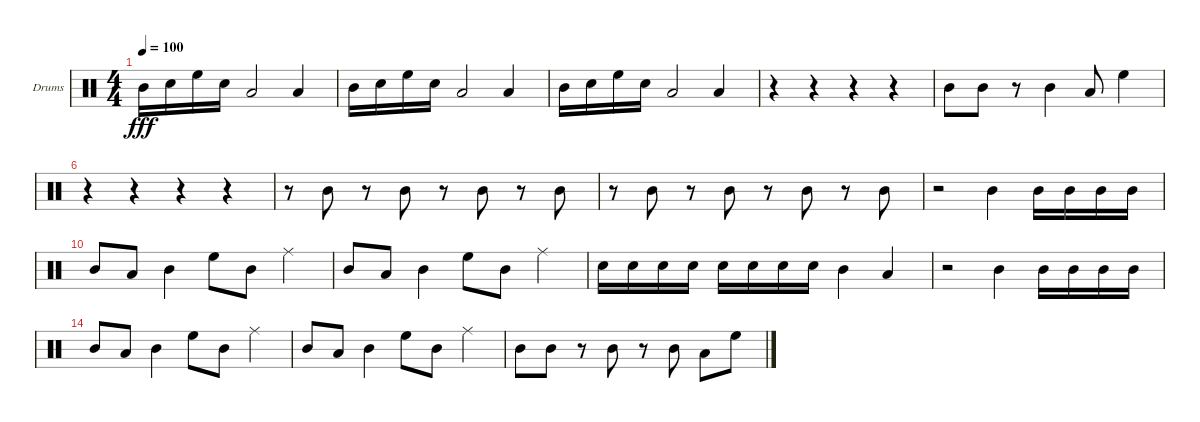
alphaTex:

\defaultSystemsLayout 4
\bracketExtendMode groupsimilarinstruments
\firstSystemTrackNameOrientation horizontal
\otherSystemsTrackNameOrientation horizontal
\defaultBarNumberDisplay FirstOfSystem
\track ("Drumkit" "Drums") {instrument percussion}
\staff {score}
\articulation defaults
\ts (4 4)
\tempo 100
\clef neutral
\ks c "Mid Tom (hit)".16{dy fff} "Snare (hit) 2".16 "High Floor Tom (hit)".16 "Snare (hit) 2".16 "Low Tom (hit)".2 "Low Tom (hit)".4
|
"Mid Tom (hit)".16 "Snare (hit) 2".16 "High Floor Tom (hit)".16 "Snare (hit) 2".16 "Low Tom (hit)".2 "Low Tom (hit)".4 |
"Mid Tom (hit)".16 "Snare (hit) 2".16 "High Floor Tom (hit)".16 "Snare (hit) 2".16 "Low Tom (hit)".2 "Low Tom (hit)".4 |
r.4 r.4 r.4 r.4 |
"Mid Tom (hit)".8 "Mid Tom (hit)".8 r.8 "Mid Tom (hit)".4 "Low Tom (hit)".8 "High Floor Tom (hit)".4 |
r.4 r.4 r.4 r.4 |
r.8 "Mid Tom (hit)".8 r.8 "Mid Tom (hit)".8 r.8 "Mid Tom (hit)".8 r.8 "Mid Tom (hit)".8 |
r.8 "Mid Tom (hit)".8 r.8 "Mid Tom (hit)".8 r.8 "Mid Tom (hit)".8 r.8 "Mid Tom (hit)".8 |
r.2 "Mid Tom (hit)".4 "Mid Tom (hit)".16 "Mid Tom (hit)".16 "Mid Tom (hit)".16 "Mid Tom (hit)".16 |
"Mid Tom (hit)".8 "Low Tom (hit)".8 "Mid Tom (hit)".4 "High Floor Tom (hit)".8 "Mid Tom (hit)".8 "Ride (middle)".4 |
"Mid Tom (hit)".8 "Low Tom (hit)".8 "Mid Tom (hit)".4 "High Floor Tom (hit)".8 "Mid Tom (hit)".8 "Ride (middle)".4 |
"Snare (hit) 2".16 "Snare (hit) 2".16 "Snare (hit) 2".16 "Snare (hit) 2".16 "Snare (hit) 2".16 "Snare (hit) 2".16 "Snare (hit) 2".16 "Snare (hit) 2".16 "Mid Tom (hit)".4 "Low Tom (hit)".4 |
r.2 "Mid Tom (hit)".4 "Mid Tom (hit)".16 "Mid Tom (hit)".16 "Mid Tom (hit)".16 "Mid Tom (hit)".16 |
"Mid Tom (hit)".8 "Low Tom (hit)".8 "Mid Tom (hit)".4 "High Floor Tom (hit)".8 "Mid Tom (hit)".8 "Ride (middle)".4 |
"Mid Tom (hit)".8 "Low Tom (hit)".8 "Mid Tom (hit)".4 "High Floor Tom (hit)".8 "Mid Tom (hit)".8 "Ride (middle)".4 |
"Mid Tom (hit)".8 "Mid Tom (hit)".8 r.8 "Mid Tom (hit)".8 r.8 "Mid Tom (hit)".8 "Low Tom (hit)".8 "High Floor Tom (hit)".8
